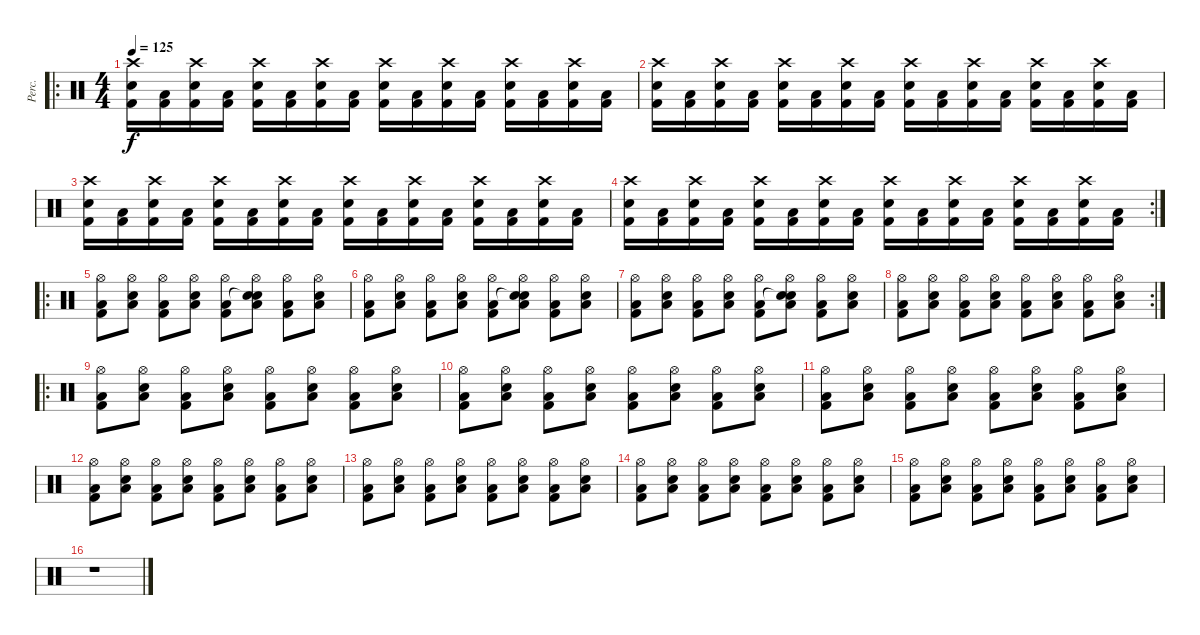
\track ("Perc." "Perc.") {instrument percussion}
\staff {score}
\articulation defaults
\ro
\ts (4 4)
\tempo 125
\clef neutral
\ks c
("Crash high (hit)" "Snare (hit) 2" "Kick (hit) 2").16{dy f} ("Low Floor Tom (hit)" "Kick (hit) 2").16 ("Crash high (hit)" "Snare (hit) 2" "Kick (hit) 2").16 ("Low Floor Tom (hit)" "Kick (hit) 2").16 ("Crash high (hit)" "Snare (hit) 2" "Kick (hit) 2").16 ("Low Floor Tom (hit)" "Kick (hit) 2").16 ("Crash high (hit)" "Snare (hit) 2" "Kick (hit) 2").16 ("Low Floor Tom (hit)" "Kick (hit) 2").16 ("Crash high (hit)" "Snare (hit) 2" "Kick (hit) 2").16 ("Low Floor Tom (hit)" "Kick (hit) 2").16 ("Crash high (hit)" "Snare (hit) 2" "Kick (hit) 2").16 ("Low Floor Tom (hit)" "Kick (hit) 2").16 ("Crash high (hit)" "Snare (hit) 2" "Kick (hit) 2").16 ("Low Floor Tom (hit)" "Kick (hit) 2").16 ("Crash high (hit)" "Snare (hit) 2" "Kick (hit) 2").16 ("Low Floor Tom (hit)" "Kick (hit) 2").16 |
("Crash high (hit)" "Snare (hit) 2" "Kick (hit) 2").16 ("Low Floor Tom (hit)" "Kick (hit) 2").16 ("Crash high (hit)" "Snare (hit) 2" "Kick (hit) 2").16 ("Low Floor Tom (hit)" "Kick (hit) 2").16 ("Crash high (hit)" "Snare (hit) 2" "Kick (hit) 2").16 ("Low Floor Tom (hit)" "Kick (hit) 2").16 ("Crash high (hit)" "Snare (hit) 2" "Kick (hit) 2").16 ("Low Floor Tom (hit)" "Kick (hit) 2").16 ("Crash high (hit)" "Snare (hit) 2" "Kick (hit) 2").16 ("Low Floor Tom (hit)" "Kick (hit) 2").16 ("Crash high (hit)" "Snare (hit) 2" "Kick (hit) 2").16 ("Low Floor Tom (hit)" "Kick (hit) 2").16 ("Crash high (hit)" "Snare (hit) 2" "Kick (hit) 2").16 ("Low Floor Tom (hit)" "Kick (hit) 2").16 ("Crash high (hit)" "Snare (hit) 2" "Kick (hit) 2").16 ("Low Floor Tom (hit)" "Kick (hit) 2").16 |
("Crash high (hit)" "Snare (hit) 2" "Kick (hit) 2").16 ("Low Floor Tom (hit)" "Kick (hit) 2").16 ("Crash high (hit)" "Snare (hit) 2" "Kick (hit) 2").16 ("Low Floor Tom (hit)" "Kick (hit) 2").16 ("Crash high (hit)" "Snare (hit) 2" "Kick (hit) 2").16 ("Low Floor Tom (hit)" "Kick (hit) 2").16 ("Crash high (hit)" "Snare (hit) 2" "Kick (hit) 2").16 ("Low Floor Tom (hit)" "Kick (hit) 2").16 ("Crash high (hit)" "Snare (hit) 2" "Kick (hit) 2").16 ("Low Floor Tom (hit)" "Kick (hit) 2").16 ("Crash high (hit)" "Snare (hit) 2" "Kick (hit) 2").16 ("Low Floor Tom (hit)" "Kick (hit) 2").16 ("Crash high (hit)" "Snare (hit) 2" "Kick (hit) 2").16 ("Low Floor Tom (hit)" "Kick (hit) 2").16 ("Crash high (hit)" "Snare (hit) 2" "Kick (hit) 2").16 ("Low Floor Tom (hit)" "Kick (hit) 2").16 |
\rc 2
("Crash high (hit)" "Snare (hit) 2" "Kick (hit) 2").16 ("Low Floor Tom (hit)" "Kick (hit) 2").16 ("Crash high (hit)" "Snare (hit) 2" "Kick (hit) 2").16 ("Low Floor Tom (hit)" "Kick (hit) 2").16 ("Crash high (hit)" "Snare (hit) 2" "Kick (hit) 2").16 ("Low Floor Tom (hit)" "Kick (hit) 2").16 ("Crash high (hit)" "Snare (hit) 2" "Kick (hit) 2").16 ("Low Floor Tom (hit)" "Kick (hit) 2").16 ("Crash high (hit)" "Snare (hit) 2" "Kick (hit) 2").16 ("Low Floor Tom (hit)" "Kick (hit) 2").16 ("Crash high (hit)" "Snare (hit) 2" "Kick (hit) 2").16 ("Low Floor Tom (hit)" "Kick (hit) 2").16 ("Crash high (hit)" "Snare (hit) 2" "Kick (hit) 2").16 ("Low Floor Tom (hit)" "Kick (hit) 2").16 ("Crash high (hit)" "Snare (hit) 2" "Kick (hit) 2").16 ("Low Floor Tom (hit)" "Kick (hit) 2").16 |
\ro
("Hi-Hat (open)" "Low Floor Tom (hit)" "Kick (hit) 2").8 ("Hi-Hat (open)" "Low Floor Tom (hit)" "Snare (hit) 2").8 ("Hi-Hat (open)" "Low Floor Tom (hit)" "Kick (hit) 2").8 ("Hi-Hat (open)" "Low Floor Tom (hit)" "Snare (hit) 2").8 ("Hi-Hat (open)" "Low Floor Tom (hit)" "Kick (hit) 2").8 ("Hi-Hat (open)" "Snare (hit)"{t} "Low Floor Tom (hit)" "Snare (hit) 2").8 ("Hi-Hat (open)" "Low Floor Tom (hit)" "Kick (hit) 2").8 ("Hi-Hat (open)" "Low Floor Tom (hit)" "Snare (hit) 2").8 |
("Hi-Hat (open)" "Low Floor Tom (hit)" "Kick (hit) 2").8 ("Hi-Hat (open)" "Low Floor Tom (hit)" "Snare (hit) 2").8 ("Hi-Hat (open)" "Low Floor Tom (hit)" "Kick (hit) 2").8 ("Hi-Hat (open)" "Low Floor Tom (hit)" "Snare (hit) 2").8 ("Hi-Hat (open)" "Low Floor Tom (hit)" "Kick (hit) 2").8 ("Hi-Hat (open)" "Snare (hit)"{t} "Low Floor Tom (hit)" "Snare (hit) 2").8 ("Hi-Hat (open)" "Low Floor Tom (hit)" "Kick (hit) 2").8 ("Hi-Hat (open)" "Low Floor Tom (hit)" "Snare (hit) 2").8 |
("Hi-Hat (open)" "Low Floor Tom (hit)" "Kick (hit) 2").8 ("Hi-Hat (open)" "Low Floor Tom (hit)" "Snare (hit) 2").8 ("Hi-Hat (open)" "Low Floor Tom (hit)" "Kick (hit) 2").8 ("Hi-Hat (open)" "Low Floor Tom (hit)" "Snare (hit) 2").8 ("Hi-Hat (open)" "Low Floor Tom (hit)" "Kick (hit) 2").8 ("Hi-Hat (open)" "Snare (hit)"{t} "Low Floor Tom (hit)" "Snare (hit) 2").8 ("Hi-Hat (open)" "Low Floor Tom (hit)" "Kick (hit) 2").8 ("Hi-Hat (open)" "Low Floor Tom (hit)" "Snare (hit) 2").8 |
\rc 2
("Hi-Hat (open)" "Low Floor Tom (hit)" "Kick (hit) 2").8 ("Hi-Hat (open)" "Low Floor Tom (hit)" "Snare (hit) 2").8 ("Hi-Hat (open)" "Low Floor Tom (hit)" "Kick (hit) 2").8 ("Hi-Hat (open)" "Low Floor Tom (hit)" "Snare (hit) 2").8 ("Hi-Hat (open)" "Low Floor Tom (hit)" "Kick (hit) 2").8 ("Hi-Hat (open)" "Low Floor Tom (hit)" "Snare (hit) 2").8 ("Hi-Hat (open)" "Low Floor Tom (hit)" "Kick (hit) 2").8 ("Hi-Hat (open)" "Low Floor Tom (hit)" "Snare (hit) 2").8 |
\ro
("Hi-Hat (open)" "Low Floor Tom (hit)" "Kick (hit) 2").8 ("Hi-Hat (open)" "Low Floor Tom (hit)" "Snare (hit) 2").8 ("Hi-Hat (open)" "Low Floor Tom (hit)" "Kick (hit) 2").8 ("Hi-Hat (open)" "Low Floor Tom (hit)" "Snare (hit) 2").8 ("Hi-Hat (open)" "Low Floor Tom (hit)" "Kick (hit) 2").8 ("Hi-Hat (open)" "Low Floor Tom (hit)" "Snare (hit) 2").8 ("Hi-Hat (open)" "Low Floor Tom (hit)" "Kick (hit) 2").8 ("Hi-Hat (open)" "Low Floor Tom (hit)" "Snare (hit) 2").8 |
("Hi-Hat (open)" "Low Floor Tom (hit)" "Kick (hit) 2").8 ("Hi-Hat (open)" "Low Floor Tom (hit)" "Snare (hit) 2").8 ("Hi-Hat (open)" "Low Floor Tom (hit)" "Kick (hit) 2").8 ("Hi-Hat (open)" "Low Floor Tom (hit)" "Snare (hit) 2").8 ("Hi-Hat (open)" "Low Floor Tom (hit)" "Kick (hit) 2").8 ("Hi-Hat (open)" "Low Floor Tom (hit)" "Snare (hit) 2").8 ("Hi-Hat (open)" "Low Floor Tom (hit)" "Kick (hit) 2").8 ("Hi-Hat (open)" "Low Floor Tom (hit)" "Snare (hit) 2").8 |
("Hi-Hat (open)" "Low Floor Tom (hit)" "Kick (hit) 2").8 ("Hi-Hat (open)" "Low Floor Tom (hit)" "Snare (hit) 2").8 ("Hi-Hat (open)" "Low Floor Tom (hit)" "Kick (hit) 2").8 ("Hi-Hat (open)" "Low Floor Tom (hit)" "Snare (hit) 2").8 ("Hi-Hat (open)" "Low Floor Tom (hit)" "Kick (hit) 2").8 ("Hi-Hat (open)" "Low Floor Tom (hit)" "Snare (hit) 2").8 ("Hi-Hat (open)" "Low Floor Tom (hit)" "Kick (hit) 2").8 ("Hi-Hat (open)" "Low Floor Tom (hit)" "Snare (hit) 2").8 |
("Hi-Hat (open)" "Low Floor Tom (hit)" "Kick (hit) 2").8 ("Hi-Hat (open)" "Low Floor Tom (hit)" "Snare (hit) 2").8 ("Hi-Hat (open)" "Low Floor Tom (hit)" "Kick (hit) 2").8 ("Hi-Hat (open)" "Low Floor Tom (hit)" "Snare (hit) 2").8 ("Hi-Hat (open)" "Low Floor Tom (hit)" "Kick (hit) 2").8 ("Hi-Hat (open)" "Low Floor Tom (hit)" "Snare (hit) 2").8 ("Hi-Hat (open)" "Low Floor Tom (hit)" "Kick (hit) 2").8 ("Hi-Hat (open)" "Low Floor Tom (hit)" "Snare (hit) 2").8 |
("Hi-Hat (open)" "Low Floor Tom (hit)" "Kick (hit) 2").8 ("Hi-Hat (open)" "Low Floor Tom (hit)" "Snare (hit) 2").8 ("Hi-Hat (open)" "Low Floor Tom (hit)" "Kick (hit) 2").8 ("Hi-Hat (open)" "Low Floor Tom (hit)" "Snare (hit) 2").8 ("Hi-Hat (open)" "Low Floor Tom (hit)" "Kick (hit) 2").8 ("Hi-Hat (open)" "Low Floor Tom (hit)" "Snare (hit) 2").8 ("Hi-Hat (open)" "Low Floor Tom (hit)" "Kick (hit) 2").8 ("Hi-Hat (open)" "Low Floor Tom (hit)" "Snare (hit) 2").8 |
("Hi-Hat (open)" "Low Floor Tom (hit)" "Kick (hit) 2").8 ("Hi-Hat (open)" "Low Floor Tom (hit)" "Snare (hit) 2").8 ("Hi-Hat (open)" "Low Floor Tom (hit)" "Kick (hit) 2").8 ("Hi-Hat (open)" "Low Floor Tom (hit)" "Snare (hit) 2").8 ("Hi-Hat (open)" "Low Floor Tom (hit)" "Kick (hit) 2").8 ("Hi-Hat (open)" "Low Floor Tom (hit)" "Snare (hit) 2").8 ("Hi-Hat (open)" "Low Floor Tom (hit)" "Kick (hit) 2").8 ("Hi-Hat (open)" "Low Floor Tom (hit)" "Snare (hit) 2").8 |
("Hi-Hat (open)" "Low Floor Tom (hit)" "Kick (hit) 2").8 ("Hi-Hat (open)" "Low Floor Tom (hit)" "Snare (hit) 2").8 ("Hi-Hat (open)" "Low Floor Tom (hit)" "Kick (hit) 2").8 ("Hi-Hat (open)" "Low Floor Tom (hit)" "Snare (hit) 2").8 ("Hi-Hat (open)" "Low Floor Tom (hit)" "Kick (hit) 2").8 ("Hi-Hat (open)" "Low Floor Tom (hit)" "Snare (hit) 2").8 ("Hi-Hat (open)" "Low Floor Tom (hit)" "Kick (hit) 2").8 ("Hi-Hat (open)" "Low Floor Tom (hit)" "Snare (hit) 2").8 |
r.1
